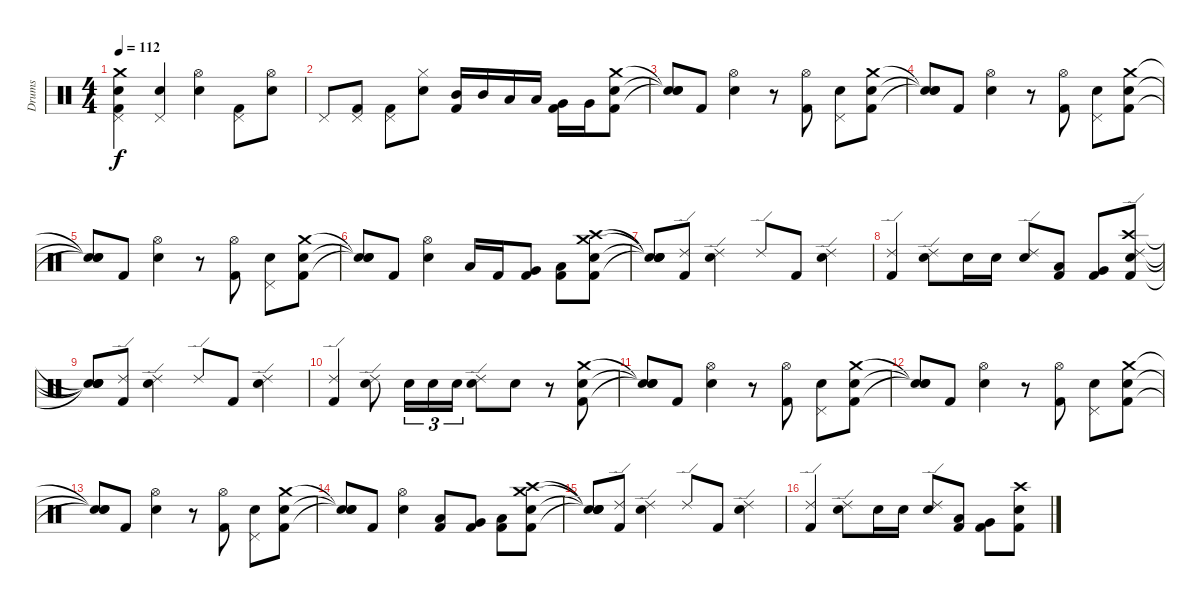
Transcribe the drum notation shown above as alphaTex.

\track ("Drums" "Drums") {instrument percussion}
\staff {score}
\articulation defaults
\ts (4 4)
\tempo 112
\clef neutral
\ks c
("Snare (hit) 2" "Pedal Hi-Hat (hit)" "Kick (hit) 2" "Crash medium (hit)").4{dy f} ("Pedal Hi-Hat (hit)" "Snare (hit) 2").4 ("Hi-Hat (open)" "Snare (hit) 2").4 ("Pedal Hi-Hat (hit)" "Kick (hit) 2").8 ("Snare (hit) 2" "Hi-Hat (open)").8 |
"Pedal Hi-Hat (hit)".8 ("Pedal Hi-Hat (hit)" "Kick (hit) 2").8 ("Pedal Hi-Hat (hit)" "Kick (hit) 2").8 ("Hi-Hat (closed)" "Snare (hit) 2").8 ("Mid Tom (hit)" "Kick (hit) 2").16 "Mid Tom (hit)".16 "Low Tom (hit)".16 "Low Tom (hit)".16 ("Very Low Tom (hit)" "Kick (hit) 2").16 "Very Low Tom (hit)".16 ("Snare (hit) 2" "Kick (hit) 2" "Crash medium (hit)").8 |
("Snare (hit)"{t} "Snare (hit)"{t} "Snare (hit)"{t}).8 "Kick (hit) 2".8 ("Hi-Hat (open)" "Snare (hit) 2").4 r.8 ("Kick (hit) 2" "Hi-Hat (open)").8 ("Snare (hit) 2" "Pedal Hi-Hat (hit)").8 ("Crash medium (hit)" "Snare (hit) 2" "Kick (hit) 2").8 |
("Snare (hit)"{t} "Snare (hit)"{t} "Snare (hit)"{t}).8 "Kick (hit) 2".8 ("Snare (hit) 2" "Hi-Hat (open)").4 r.8 ("Kick (hit) 2" "Hi-Hat (open)").8 ("Snare (hit) 2" "Pedal Hi-Hat (hit)").8 ("Snare (hit) 2" "Crash medium (hit)" "Kick (hit) 2").8 |
("Snare (hit)"{t} "Snare (hit)"{t} "Snare (hit)"{t}).8 "Kick (hit) 2".8 ("Hi-Hat (open)" "Snare (hit) 2").4 r.8 ("Kick (hit) 2" "Hi-Hat (open)").8 ("Snare (hit) 2" "Pedal Hi-Hat (hit)").8 ("Snare (hit) 2" "Crash medium (hit)" "Kick (hit) 2").8 |
("Snare (hit)"{t} "Snare (hit)"{t} "Snare (hit)"{t}).8 "Kick (hit) 2".8 ("Hi-Hat (open)" "Snare (hit) 2").4 "Low Tom (hit)".16 "Kick (hit) 2".16 ("Kick (hit) 2" "Very Low Tom (hit)").8 ("Kick (hit) 2" "Low Floor Tom (hit)").8 ("Crash medium (hit)" "Crash high (hit)" "Snare (hit) 2" "Kick (hit) 2").8 |
("Snare (hit)"{t} "Snare (hit)"{t} "Snare (hit)"{t} "Snare (hit)"{t}).8 ("Ride (edge) 2" "Kick (hit) 2").8 ("Ride (edge) 2" "Snare (hit) 2").4 "Ride (edge) 2".8 "Kick (hit) 2".8 ("Ride (edge) 2" "Snare (hit) 2").4 |
("Ride (edge) 2" "Kick (hit) 2").4 ("Ride (edge) 2" "Snare (hit) 2").8 "Snare (hit) 2".16 "Snare (hit) 2".16 ("Ride (edge) 2" "Snare (hit) 2").8 ("Low Tom (hit)" "Kick (hit) 2").8 ("Very Low Tom (hit)" "Kick (hit) 2").8 ("Ride (edge) 2" "Crash high (hit)" "Kick (hit) 2" "Snare (hit) 2").8 |
("Snare (hit)"{t} "Snare (hit)"{t} "Snare (hit)"{t} "Snare (hit)"{t}).8 ("Ride (edge) 2" "Kick (hit) 2").8 ("Ride (edge) 2" "Snare (hit) 2").4 "Ride (edge) 2".8 "Kick (hit) 2".8 ("Ride (edge) 2" "Snare (hit) 2").4 |
("Kick (hit) 2" "Ride (edge) 2").4 ("Snare (hit) 2" "Ride (edge) 2").8 "Snare (hit) 2".16{tu (3 2)} "Snare (hit) 2".16{tu (3 2)} "Snare (hit) 2".16{tu (3 2)} ("Snare (hit) 2" "Ride (edge) 2").8 "Snare (hit) 2".8 r.8 ("Snare (hit) 2" "Kick (hit) 2" "Crash medium (hit)").8 |
("Snare (hit)"{t} "Snare (hit)"{t} "Snare (hit)"{t}).8 "Kick (hit) 2".8 ("Hi-Hat (open)" "Snare (hit) 2").4 r.8 ("Kick (hit) 2" "Hi-Hat (open)").8 ("Snare (hit) 2" "Pedal Hi-Hat (hit)").8 ("Crash medium (hit)" "Kick (hit) 2" "Snare (hit) 2").8 |
("Snare (hit)"{t} "Snare (hit)"{t} "Snare (hit)"{t}).8 "Kick (hit) 2".8 ("Snare (hit) 2" "Hi-Hat (open)").4 r.8 ("Kick (hit) 2" "Hi-Hat (open)").8 ("Snare (hit) 2" "Pedal Hi-Hat (hit)").8 ("Snare (hit) 2" "Kick (hit) 2" "Crash medium (hit)").8 |
("Snare (hit)"{t} "Snare (hit)"{t} "Snare (hit)"{t}).8 "Kick (hit) 2".8 ("Snare (hit) 2" "Hi-Hat (open)").4 r.8 ("Kick (hit) 2" "Hi-Hat (open)").8 ("Snare (hit) 2" "Pedal Hi-Hat (hit)").8 ("Snare (hit) 2" "Kick (hit) 2" "Crash medium (hit)").8 |
("Snare (hit)"{t} "Snare (hit)"{t} "Snare (hit)"{t}).8 "Kick (hit) 2".8 ("Snare (hit) 2" "Hi-Hat (open)").4 ("Kick (hit) 2" "Low Tom (hit)").8 ("Kick (hit) 2" "Very Low Tom (hit)").8 ("Kick (hit) 2" "Low Floor Tom (hit)").8 ("Crash medium (hit)" "Crash high (hit)" "Snare (hit) 2" "Kick (hit) 2").8 |
("Snare (hit)"{t} "Snare (hit)"{t} "Snare (hit)"{t} "Snare (hit)"{t}).8 ("Kick (hit) 2" "Ride (edge) 2").8 ("Snare (hit) 2" "Ride (edge) 2").4 "Ride (edge) 2".8 "Kick (hit) 2".8 ("Snare (hit) 2" "Ride (edge) 2").4 |
("Kick (hit) 2" "Ride (edge) 2").4 ("Snare (hit) 2" "Ride (edge) 2").8 "Snare (hit) 2".16 "Snare (hit) 2".16 ("Snare (hit) 2" "Ride (edge) 2").8 ("Kick (hit) 2" "Low Tom (hit)").8 ("Kick (hit) 2" "Very Low Tom (hit)").8 ("Snare (hit) 2" "Kick (hit) 2" "Crash high (hit)").8
